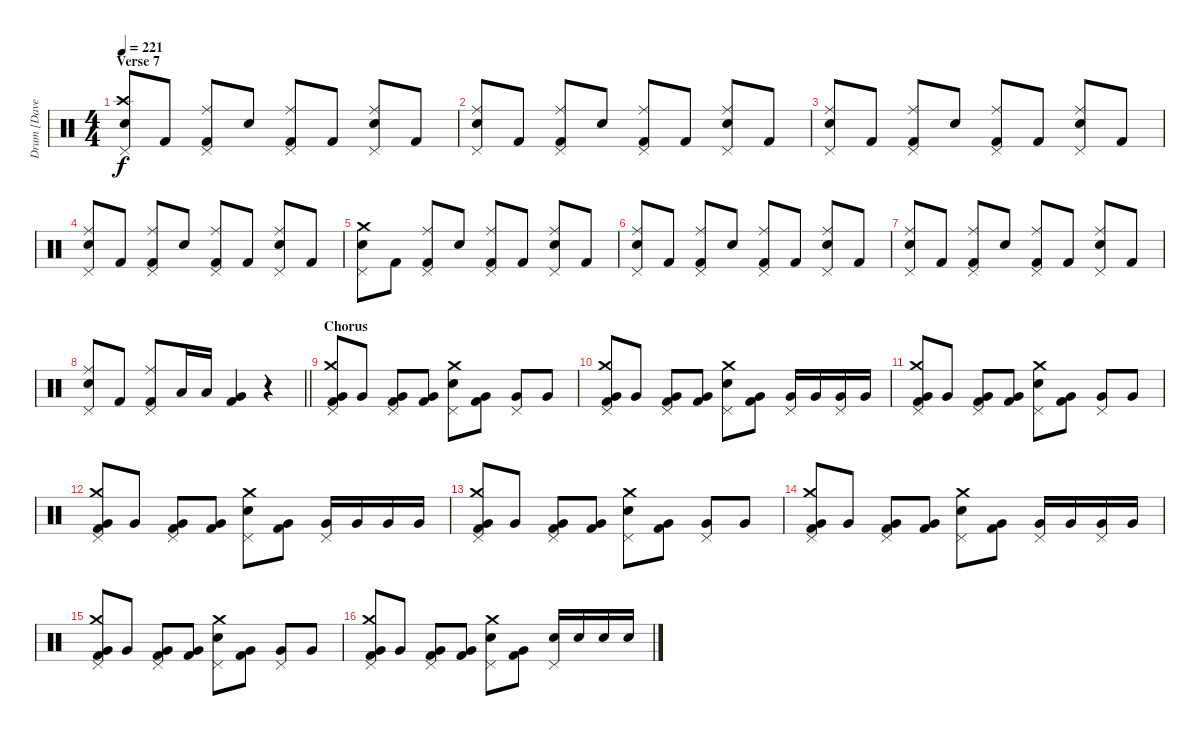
\track ("Drum [Dave Grohl]" "Drum [Dave") {instrument percussion bank 255}
\staff {score}
\articulation defaults
\ts (4 4)
\section ("" "Verse 7")
\tempo 221
\clef neutral
\ks c
("Pedal Hi-Hat (hit)" "Crash high (hit)" "Snare (hit) 2").8{dy f} "Kick (hit) 2".8 ("Pedal Hi-Hat (hit)" "Ride (middle)" "Kick (hit) 2").8 "Snare (hit) 2".8 ("Pedal Hi-Hat (hit)" "Ride (middle)" "Kick (hit) 2").8 "Kick (hit) 2".8 ("Pedal Hi-Hat (hit)" "Ride (middle)" "Snare (hit) 2").8 "Kick (hit) 2".8 |
("Pedal Hi-Hat (hit)" "Ride (middle)" "Snare (hit) 2").8 "Kick (hit) 2".8 ("Pedal Hi-Hat (hit)" "Ride (middle)" "Kick (hit) 2").8 "Snare (hit) 2".8 ("Pedal Hi-Hat (hit)" "Ride (middle)" "Kick (hit) 2").8 "Kick (hit) 2".8 ("Pedal Hi-Hat (hit)" "Ride (middle)" "Snare (hit) 2").8 "Kick (hit) 2".8 |
("Pedal Hi-Hat (hit)" "Ride (middle)" "Snare (hit) 2").8 "Kick (hit) 2".8 ("Pedal Hi-Hat (hit)" "Ride (middle)" "Kick (hit) 2").8 "Snare (hit) 2".8 ("Pedal Hi-Hat (hit)" "Ride (middle)" "Kick (hit) 2").8 "Kick (hit) 2".8 ("Pedal Hi-Hat (hit)" "Ride (middle)" "Snare (hit) 2").8 "Kick (hit) 2".8 |
("Pedal Hi-Hat (hit)" "Ride (middle)" "Snare (hit) 2").8 "Kick (hit) 2".8 ("Pedal Hi-Hat (hit)" "Ride (middle)" "Kick (hit) 2").8 "Snare (hit) 2".8 ("Pedal Hi-Hat (hit)" "Ride (middle)" "Kick (hit) 2").8 "Kick (hit) 2".8 ("Pedal Hi-Hat (hit)" "Ride (middle)" "Snare (hit) 2").8 "Kick (hit) 2".8 |
("Pedal Hi-Hat (hit)" "Crash medium (hit)" "Snare (hit) 2").8 "Kick (hit) 2".8 ("Pedal Hi-Hat (hit)" "Ride (middle)" "Kick (hit) 2").8 "Snare (hit) 2".8 ("Pedal Hi-Hat (hit)" "Ride (middle)" "Kick (hit) 2").8 "Kick (hit) 2".8 ("Pedal Hi-Hat (hit)" "Ride (middle)" "Snare (hit) 2").8 "Kick (hit) 2".8 |
("Pedal Hi-Hat (hit)" "Ride (middle)" "Snare (hit) 2").8 "Kick (hit) 2".8 ("Pedal Hi-Hat (hit)" "Ride (middle)" "Kick (hit) 2").8 "Snare (hit) 2".8 ("Pedal Hi-Hat (hit)" "Ride (middle)" "Kick (hit) 2").8 "Kick (hit) 2".8 ("Pedal Hi-Hat (hit)" "Ride (middle)" "Snare (hit) 2").8 "Kick (hit) 2".8 |
("Pedal Hi-Hat (hit)" "Ride (middle)" "Snare (hit) 2").8 "Kick (hit) 2".8 ("Pedal Hi-Hat (hit)" "Ride (middle)" "Kick (hit) 2").8 "Snare (hit) 2".8 ("Pedal Hi-Hat (hit)" "Ride (middle)" "Kick (hit) 2").8 "Kick (hit) 2".8 ("Pedal Hi-Hat (hit)" "Ride (middle)" "Snare (hit) 2").8 "Kick (hit) 2".8 |
\barLineRight lightlight
("Pedal Hi-Hat (hit)" "Ride (middle)" "Snare (hit) 2").8 "Kick (hit) 2".8 ("Pedal Hi-Hat (hit)" "Ride (middle)" "Kick (hit) 2").8 "Low Tom (hit)".16 "Low Tom (hit)".16 ("Very Low Tom (hit)" "Kick (hit) 2").4 r.4 |
\section ("" "Chorus")
("Pedal Hi-Hat (hit)" "Crash medium (hit)" "Very Low Tom (hit)" "Kick (hit) 2").8 "Very Low Tom (hit)".8 ("Pedal Hi-Hat (hit)" "Very Low Tom (hit)" "Kick (hit) 2").8 ("Very Low Tom (hit)" "Kick (hit) 2").8 ("Pedal Hi-Hat (hit)" "Crash medium (hit)" "Snare (hit) 2").8 ("Very Low Tom (hit)" "Kick (hit) 2").8 ("Pedal Hi-Hat (hit)" "Very Low Tom (hit)").8 "Very Low Tom (hit)".8 |
("Pedal Hi-Hat (hit)" "Crash medium (hit)" "Very Low Tom (hit)" "Kick (hit) 2").8 "Very Low Tom (hit)".8 ("Pedal Hi-Hat (hit)" "Very Low Tom (hit)" "Kick (hit) 2").8 ("Very Low Tom (hit)" "Kick (hit) 2").8 ("Pedal Hi-Hat (hit)" "Crash medium (hit)" "Snare (hit) 2").8 ("Very Low Tom (hit)" "Kick (hit) 2").8 ("Pedal Hi-Hat (hit)" "Very Low Tom (hit)").16 "Very Low Tom (hit)".16 ("Pedal Hi-Hat (hit)" "Very Low Tom (hit)").16 "Very Low Tom (hit)".16 |
("Pedal Hi-Hat (hit)" "Crash medium (hit)" "Very Low Tom (hit)" "Kick (hit) 2").8 "Very Low Tom (hit)".8 ("Pedal Hi-Hat (hit)" "Very Low Tom (hit)" "Kick (hit) 2").8 ("Very Low Tom (hit)" "Kick (hit) 2").8 ("Pedal Hi-Hat (hit)" "Crash medium (hit)" "Snare (hit) 2").8 ("Very Low Tom (hit)" "Kick (hit) 2").8 ("Pedal Hi-Hat (hit)" "Very Low Tom (hit)").8 "Very Low Tom (hit)".8 |
("Pedal Hi-Hat (hit)" "Crash medium (hit)" "Very Low Tom (hit)" "Kick (hit) 2").8 "Very Low Tom (hit)".8 ("Pedal Hi-Hat (hit)" "Very Low Tom (hit)" "Kick (hit) 2").8 ("Very Low Tom (hit)" "Kick (hit) 2").8 ("Pedal Hi-Hat (hit)" "Crash medium (hit)" "Snare (hit) 2").8 ("Very Low Tom (hit)" "Kick (hit) 2").8 ("Pedal Hi-Hat (hit)" "Very Low Tom (hit)").16 "Very Low Tom (hit)".16 "Very Low Tom (hit)".16 "Very Low Tom (hit)".16 |
("Pedal Hi-Hat (hit)" "Crash medium (hit)" "Very Low Tom (hit)" "Kick (hit) 2").8 "Very Low Tom (hit)".8 ("Pedal Hi-Hat (hit)" "Very Low Tom (hit)" "Kick (hit) 2").8 ("Very Low Tom (hit)" "Kick (hit) 2").8 ("Pedal Hi-Hat (hit)" "Crash medium (hit)" "Snare (hit) 2").8 ("Very Low Tom (hit)" "Kick (hit) 2").8 ("Pedal Hi-Hat (hit)" "Very Low Tom (hit)").8 "Very Low Tom (hit)".8 |
("Pedal Hi-Hat (hit)" "Crash medium (hit)" "Very Low Tom (hit)" "Kick (hit) 2").8 "Very Low Tom (hit)".8 ("Pedal Hi-Hat (hit)" "Very Low Tom (hit)" "Kick (hit) 2").8 ("Very Low Tom (hit)" "Kick (hit) 2").8 ("Pedal Hi-Hat (hit)" "Crash medium (hit)" "Snare (hit) 2").8 ("Very Low Tom (hit)" "Kick (hit) 2").8 ("Pedal Hi-Hat (hit)" "Very Low Tom (hit)").16 "Very Low Tom (hit)".16 ("Pedal Hi-Hat (hit)" "Very Low Tom (hit)").16 "Very Low Tom (hit)".16 |
("Pedal Hi-Hat (hit)" "Crash medium (hit)" "Very Low Tom (hit)" "Kick (hit) 2").8 "Very Low Tom (hit)".8 ("Pedal Hi-Hat (hit)" "Very Low Tom (hit)" "Kick (hit) 2").8 ("Very Low Tom (hit)" "Kick (hit) 2").8 ("Pedal Hi-Hat (hit)" "Crash medium (hit)" "Snare (hit) 2").8 ("Very Low Tom (hit)" "Kick (hit) 2").8 ("Pedal Hi-Hat (hit)" "Very Low Tom (hit)").8 "Very Low Tom (hit)".8 |
("Pedal Hi-Hat (hit)" "Crash medium (hit)" "Very Low Tom (hit)" "Kick (hit) 2").8 "Very Low Tom (hit)".8 ("Pedal Hi-Hat (hit)" "Very Low Tom (hit)" "Kick (hit) 2").8 ("Very Low Tom (hit)" "Kick (hit) 2").8 ("Pedal Hi-Hat (hit)" "Crash medium (hit)" "Snare (hit) 2").8 ("Very Low Tom (hit)" "Kick (hit) 2").8 ("Pedal Hi-Hat (hit)" "Snare (hit) 2").16 "Snare (hit) 2".16 "Snare (hit) 2".16 "Snare (hit) 2".16
